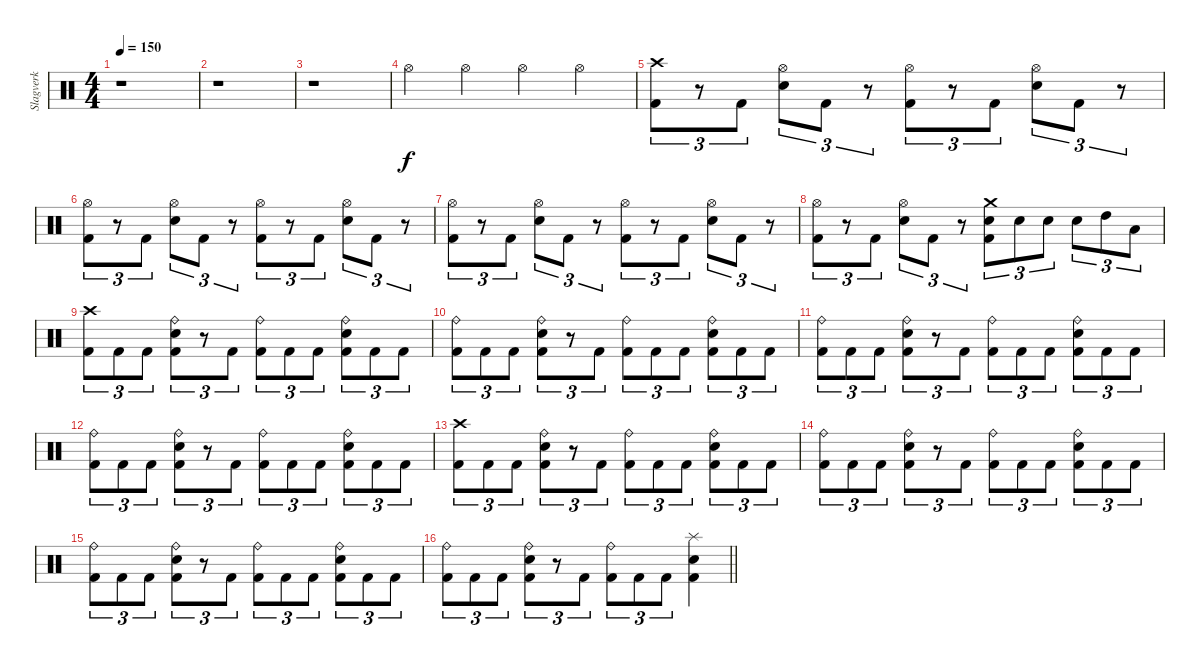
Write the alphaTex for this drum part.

\track ("Slagverk" "Slagverk") {instrument percussion}
\staff {score}
\articulation defaults
\ts (4 4)
\tempo 150
\clef neutral
\ks c
r.1{dy f} |
r.1 |
r.1 |
"Hi-Hat (open)".4 "Hi-Hat (open)".4 "Hi-Hat (open)".4 "Hi-Hat (open)".4 |
("Crash high (hit)" "Kick (hit) 2").8{tu (3 2)} r.8{tu (3 2)} "Kick (hit) 2".8{tu (3 2)} ("Hi-Hat (open)" "Snare (hit) 2").8{tu (3 2)} "Kick (hit) 2".8{tu (3 2)} r.8{tu (3 2)} ("Hi-Hat (open)" "Kick (hit) 2").8{tu (3 2)} r.8{tu (3 2)} "Kick (hit) 2".8{tu (3 2)} ("Hi-Hat (open)" "Snare (hit) 2").8{tu (3 2)} "Kick (hit) 2".8{tu (3 2)} r.8{tu (3 2)} |
("Hi-Hat (open)" "Kick (hit) 2").8{tu (3 2)} r.8{tu (3 2)} "Kick (hit) 2".8{tu (3 2)} ("Hi-Hat (open)" "Snare (hit) 2").8{tu (3 2)} "Kick (hit) 2".8{tu (3 2)} r.8{tu (3 2)} ("Hi-Hat (open)" "Kick (hit) 2").8{tu (3 2)} r.8{tu (3 2)} "Kick (hit) 2".8{tu (3 2)} ("Hi-Hat (open)" "Snare (hit) 2").8{tu (3 2)} "Kick (hit) 2".8{tu (3 2)} r.8{tu (3 2)} |
("Hi-Hat (open)" "Kick (hit) 2").8{tu (3 2)} r.8{tu (3 2)} "Kick (hit) 2".8{tu (3 2)} ("Hi-Hat (open)" "Snare (hit) 2").8{tu (3 2)} "Kick (hit) 2".8{tu (3 2)} r.8{tu (3 2)} ("Hi-Hat (open)" "Kick (hit) 2").8{tu (3 2)} r.8{tu (3 2)} "Kick (hit) 2".8{tu (3 2)} ("Hi-Hat (open)" "Snare (hit) 2").8{tu (3 2)} "Kick (hit) 2".8{tu (3 2)} r.8{tu (3 2)} |
("Hi-Hat (open)" "Kick (hit) 2").8{tu (3 2)} r.8{tu (3 2)} "Kick (hit) 2".8{tu (3 2)} ("Hi-Hat (open)" "Snare (hit) 2").8{tu (3 2)} "Kick (hit) 2".8{tu (3 2)} r.8{tu (3 2)} ("Crash medium (hit)" "Snare (hit) 2" "Kick (hit) 2").8{tu (3 2)} "Snare (hit) 2".8{tu (3 2)} "Snare (hit) 2".8{tu (3 2)} "Snare (hit) 2".8{tu (3 2)} "High Tom (hit)".8{tu (3 2)} "Low Tom (hit)".8{tu (3 2)} |
("Crash high (hit)" "Kick (hit) 2").8{tu (3 2)} "Kick (hit) 2".8{tu (3 2)} "Kick (hit) 2".8{tu (3 2)} ("Ride (bell)" "Snare (hit) 2" "Kick (hit) 2").8{tu (3 2)} r.8{tu (3 2)} "Kick (hit) 2".8{tu (3 2)} ("Ride (bell)" "Kick (hit) 2").8{tu (3 2)} "Kick (hit) 2".8{tu (3 2)} "Kick (hit) 2".8{tu (3 2)} ("Ride (bell)" "Snare (hit) 2" "Kick (hit) 2").8{tu (3 2)} "Kick (hit) 2".8{tu (3 2)} "Kick (hit) 2".8{tu (3 2)} |
("Ride (bell)" "Kick (hit) 2").8{tu (3 2)} "Kick (hit) 2".8{tu (3 2)} "Kick (hit) 2".8{tu (3 2)} ("Ride (bell)" "Snare (hit) 2" "Kick (hit) 2").8{tu (3 2)} r.8{tu (3 2)} "Kick (hit) 2".8{tu (3 2)} ("Ride (bell)" "Kick (hit) 2").8{tu (3 2)} "Kick (hit) 2".8{tu (3 2)} "Kick (hit) 2".8{tu (3 2)} ("Ride (bell)" "Snare (hit) 2" "Kick (hit) 2").8{tu (3 2)} "Kick (hit) 2".8{tu (3 2)} "Kick (hit) 2".8{tu (3 2)} |
("Ride (bell)" "Kick (hit) 2").8{tu (3 2)} "Kick (hit) 2".8{tu (3 2)} "Kick (hit) 2".8{tu (3 2)} ("Ride (bell)" "Snare (hit) 2" "Kick (hit) 2").8{tu (3 2)} r.8{tu (3 2)} "Kick (hit) 2".8{tu (3 2)} ("Ride (bell)" "Kick (hit) 2").8{tu (3 2)} "Kick (hit) 2".8{tu (3 2)} "Kick (hit) 2".8{tu (3 2)} ("Ride (bell)" "Snare (hit) 2" "Kick (hit) 2").8{tu (3 2)} "Kick (hit) 2".8{tu (3 2)} "Kick (hit) 2".8{tu (3 2)} |
("Ride (bell)" "Kick (hit) 2").8{tu (3 2)} "Kick (hit) 2".8{tu (3 2)} "Kick (hit) 2".8{tu (3 2)} ("Ride (bell)" "Snare (hit) 2" "Kick (hit) 2").8{tu (3 2)} r.8{tu (3 2)} "Kick (hit) 2".8{tu (3 2)} ("Ride (bell)" "Kick (hit) 2").8{tu (3 2)} "Kick (hit) 2".8{tu (3 2)} "Kick (hit) 2".8{tu (3 2)} ("Ride (bell)" "Snare (hit) 2" "Kick (hit) 2").8{tu (3 2)} "Kick (hit) 2".8{tu (3 2)} "Kick (hit) 2".8{tu (3 2)} |
("Crash high (hit)" "Kick (hit) 2").8{tu (3 2)} "Kick (hit) 2".8{tu (3 2)} "Kick (hit) 2".8{tu (3 2)} ("Ride (bell)" "Snare (hit) 2" "Kick (hit) 2").8{tu (3 2)} r.8{tu (3 2)} "Kick (hit) 2".8{tu (3 2)} ("Ride (bell)" "Kick (hit) 2").8{tu (3 2)} "Kick (hit) 2".8{tu (3 2)} "Kick (hit) 2".8{tu (3 2)} ("Ride (bell)" "Snare (hit) 2" "Kick (hit) 2").8{tu (3 2)} "Kick (hit) 2".8{tu (3 2)} "Kick (hit) 2".8{tu (3 2)} |
("Ride (bell)" "Kick (hit) 2").8{tu (3 2)} "Kick (hit) 2".8{tu (3 2)} "Kick (hit) 2".8{tu (3 2)} ("Ride (bell)" "Snare (hit) 2" "Kick (hit) 2").8{tu (3 2)} r.8{tu (3 2)} "Kick (hit) 2".8{tu (3 2)} ("Ride (bell)" "Kick (hit) 2").8{tu (3 2)} "Kick (hit) 2".8{tu (3 2)} "Kick (hit) 2".8{tu (3 2)} ("Ride (bell)" "Snare (hit) 2" "Kick (hit) 2").8{tu (3 2)} "Kick (hit) 2".8{tu (3 2)} "Kick (hit) 2".8{tu (3 2)} |
("Ride (bell)" "Kick (hit) 2").8{tu (3 2)} "Kick (hit) 2".8{tu (3 2)} "Kick (hit) 2".8{tu (3 2)} ("Ride (bell)" "Snare (hit) 2" "Kick (hit) 2").8{tu (3 2)} r.8{tu (3 2)} "Kick (hit) 2".8{tu (3 2)} ("Ride (bell)" "Kick (hit) 2").8{tu (3 2)} "Kick (hit) 2".8{tu (3 2)} "Kick (hit) 2".8{tu (3 2)} ("Ride (bell)" "Snare (hit) 2" "Kick (hit) 2").8{tu (3 2)} "Kick (hit) 2".8{tu (3 2)} "Kick (hit) 2".8{tu (3 2)} |
\barLineRight lightlight
("Ride (bell)" "Kick (hit) 2").8{tu (3 2)} "Kick (hit) 2".8{tu (3 2)} "Kick (hit) 2".8{tu (3 2)} ("Ride (bell)" "Snare (hit) 2" "Kick (hit) 2").8{tu (3 2)} r.8{tu (3 2)} "Kick (hit) 2".8{tu (3 2)} ("Ride (bell)" "Kick (hit) 2").8{tu (3 2)} "Kick (hit) 2".8{tu (3 2)} "Kick (hit) 2".8{tu (3 2)} ("Splash (hit)" "Snare (hit) 2" "Kick (hit) 2").4
